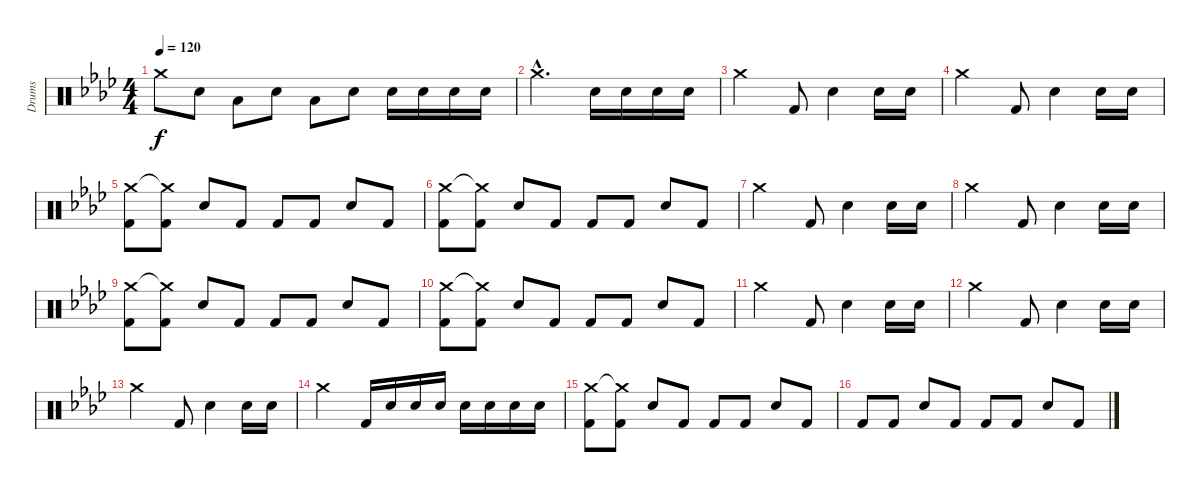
\track ("Drums" "Drums") {instrument percussion}
\staff {score}
\articulation defaults
\ts (4 4)
\tempo 120
\clef neutral
\ks ab "Crash medium (hit)".8{dy f} "Electric Snare (hit)".8 "Low Tom (hit)".8 "Electric Snare (hit)".8 "Low Tom (hit)".8 "Electric Snare (hit)".8 "Electric Snare (hit)".16 "Electric Snare (hit)".16 "Electric Snare (hit)".16 "Electric Snare (hit)".16
|
"Crash medium (hit)"{hac}.2{d} "Electric Snare (hit)".16 "Electric Snare (hit)".16 "Electric Snare (hit)".16 "Electric Snare (hit)".16 |
"Crash medium (hit)".2 "Kick (hit) 2".8 "Snare (hit) 2".4 "Electric Snare (hit)".16 "Electric Snare (hit)".16 |
"Crash medium (hit)".2 "Kick (hit) 2".8 "Snare (hit) 2".4 "Electric Snare (hit)".16 "Electric Snare (hit)".16 |
("Crash medium (hit)" "Kick (hit) 2").8 ("Crash medium (hit)"{t} "Kick (hit) 2").8 "Snare (hit) 2".8 "Kick (hit) 2".8 "Kick (hit) 2".8 "Kick (hit) 2".8 "Snare (hit) 2".8 "Kick (hit) 2".8 |
("Crash medium (hit)" "Kick (hit) 2").8 ("Crash medium (hit)"{t} "Kick (hit) 2").8 "Snare (hit) 2".8 "Kick (hit) 2".8 "Kick (hit) 2".8 "Kick (hit) 2".8 "Snare (hit) 2".8 "Kick (hit) 2".8 |
"Crash medium (hit)".2 "Kick (hit) 2".8 "Snare (hit) 2".4 "Electric Snare (hit)".16 "Electric Snare (hit)".16 |
"Crash medium (hit)".2 "Kick (hit) 2".8 "Snare (hit) 2".4 "Electric Snare (hit)".16 "Electric Snare (hit)".16 |
("Crash medium (hit)" "Kick (hit) 2").8 ("Crash medium (hit)"{t} "Kick (hit) 2").8 "Snare (hit) 2".8 "Kick (hit) 2".8 "Kick (hit) 2".8 "Kick (hit) 2".8 "Snare (hit) 2".8 "Kick (hit) 2".8 |
("Crash medium (hit)" "Kick (hit) 2").8 ("Crash medium (hit)"{t} "Kick (hit) 2").8 "Snare (hit) 2".8 "Kick (hit) 2".8 "Kick (hit) 2".8 "Kick (hit) 2".8 "Snare (hit) 2".8 "Kick (hit) 2".8 |
"Crash medium (hit)".2 "Kick (hit) 2".8 "Snare (hit) 2".4 "Electric Snare (hit)".16 "Electric Snare (hit)".16 |
"Crash medium (hit)".2 "Kick (hit) 2".8 "Snare (hit) 2".4 "Electric Snare (hit)".16 "Electric Snare (hit)".16 |
"Crash medium (hit)".2 "Kick (hit) 2".8 "Snare (hit) 2".4 "Electric Snare (hit)".16 "Electric Snare (hit)".16 |
"Crash medium (hit)".2 "Kick (hit) 2".16 "Electric Snare (hit)".16 "Electric Snare (hit)".16 "Electric Snare (hit)".16 "Electric Snare (hit)".16 "Electric Snare (hit)".16 "Electric Snare (hit)".16 "Electric Snare (hit)".16 |
("Crash medium (hit)" "Kick (hit) 2").8 ("Crash medium (hit)"{t} "Kick (hit) 2").8 "Snare (hit) 2".8 "Kick (hit) 2".8 "Kick (hit) 2".8 "Kick (hit) 2".8 "Snare (hit) 2".8 "Kick (hit) 2".8 |
"Kick (hit) 2".8 "Kick (hit) 2".8 "Snare (hit) 2".8 "Kick (hit) 2".8 "Kick (hit) 2".8 "Kick (hit) 2".8 "Snare (hit) 2".8 "Kick (hit) 2".8
